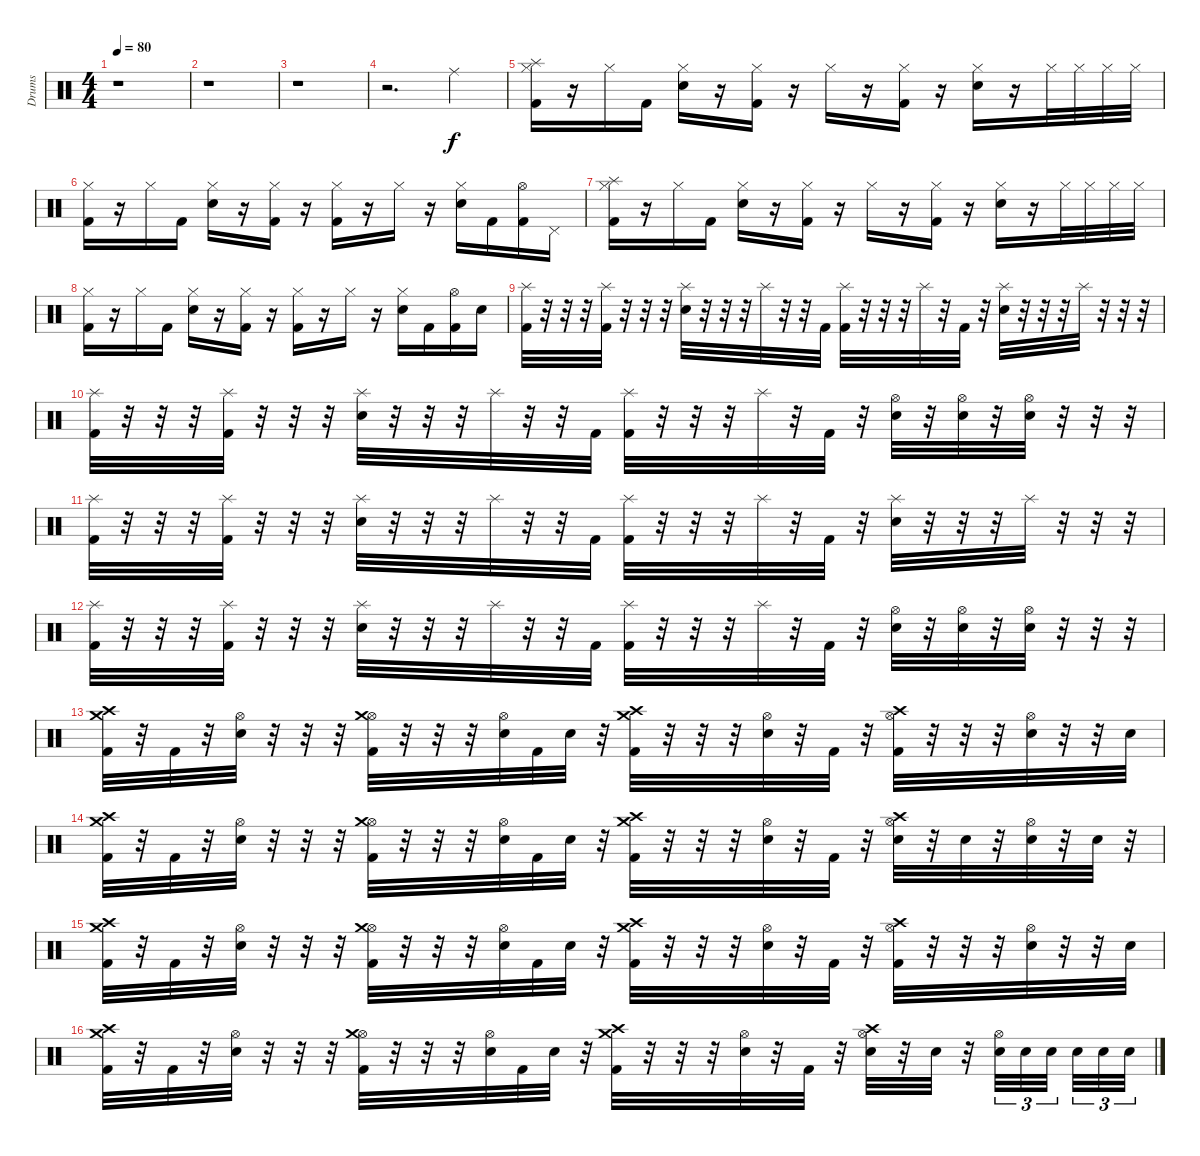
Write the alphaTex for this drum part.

\track ("Drums" "Drums") {instrument percussion}
\staff {score}
\articulation defaults
\ts (4 4)
\tempo 80
\clef neutral
\ks c
r.1{dy f} |
r.1 |
r.1 |
r.2{d} "Ride (middle)".4 |
("Splash (hit)" "Hi-Hat (closed)" "Kick (hit) 2").16{volume 10} r.16 "Hi-Hat (closed)".16 "Kick (hit) 2".16 ("Hi-Hat (closed)" "Electric Snare (hit)").16 r.16 ("Hi-Hat (closed)" "Kick (hit) 2").16 r.16 "Hi-Hat (closed)".16 r.16 ("Hi-Hat (closed)" "Kick (hit) 2").16 r.16 ("Hi-Hat (closed)" "Electric Snare (hit)").16 r.16 "Hi-Hat (closed)".32 "Hi-Hat (closed)".32 "Hi-Hat (closed)".32 "Hi-Hat (closed)".32 |
("Hi-Hat (closed)" "Kick (hit) 2").16{volume 10} r.16 "Hi-Hat (closed)".16 "Kick (hit) 2".16 ("Hi-Hat (closed)" "Electric Snare (hit)").16 r.16 ("Hi-Hat (closed)" "Kick (hit) 2").16 r.16 ("Hi-Hat (closed)" "Kick (hit) 2").16 r.16 "Hi-Hat (closed)".16 r.16 ("Hi-Hat (closed)" "Electric Snare (hit)").16 "Kick (hit) 2".16 ("Hi-Hat (open)" "Kick (hit) 2").16 "Pedal Hi-Hat (hit)".16 |
("Splash (hit)" "Hi-Hat (closed)" "Kick (hit) 2").16{volume 10} r.16 "Hi-Hat (closed)".16 "Kick (hit) 2".16 ("Hi-Hat (closed)" "Electric Snare (hit)").16 r.16 ("Hi-Hat (closed)" "Kick (hit) 2").16 r.16 "Hi-Hat (closed)".16 r.16 ("Hi-Hat (closed)" "Kick (hit) 2").16 r.16 ("Hi-Hat (closed)" "Electric Snare (hit)").16 r.16 "Hi-Hat (closed)".32 "Hi-Hat (closed)".32 "Hi-Hat (closed)".32 "Hi-Hat (closed)".32 |
("Hi-Hat (closed)" "Kick (hit) 2").16{volume 10} r.16 "Hi-Hat (closed)".16 "Kick (hit) 2".16 ("Hi-Hat (closed)" "Electric Snare (hit)").16 r.16 ("Hi-Hat (closed)" "Kick (hit) 2").16 r.16 ("Hi-Hat (closed)" "Kick (hit) 2").16 r.16 "Hi-Hat (closed)".16 r.16 ("Hi-Hat (closed)" "Electric Snare (hit)").16 "Kick (hit) 2".16 ("Hi-Hat (open)" "Kick (hit) 2").16 "Electric Snare (hit)".16 |
("Splash (hit)" "Kick (hit) 2").32{volume 15} r.32 r.32 r.32 ("Splash (hit)" "Kick (hit) 2").32 r.32 r.32 r.32 ("Splash (hit)" "Electric Snare (hit)").32 r.32 r.32 r.32 "Splash (hit)".32 r.32 r.32 "Kick (hit) 2".32 ("Splash (hit)" "Kick (hit) 2").32 r.32 r.32 r.32 "Splash (hit)".32 r.32 "Kick (hit) 2".32 r.32 ("Splash (hit)" "Electric Snare (hit)").32 r.32 r.32 r.32 "Splash (hit)".32 r.32 r.32 r.32 |
("Splash (hit)" "Kick (hit) 2").32{volume 15} r.32 r.32 r.32 ("Splash (hit)" "Kick (hit) 2").32 r.32 r.32 r.32 ("Splash (hit)" "Electric Snare (hit)").32 r.32 r.32 r.32 "Splash (hit)".32 r.32 r.32 "Kick (hit) 2".32 ("Splash (hit)" "Kick (hit) 2").32 r.32 r.32 r.32 "Splash (hit)".32 r.32 "Kick (hit) 2".32 r.32 ("Hi-Hat (open)" "Electric Snare (hit)").32 r.32 ("Hi-Hat (open)" "Electric Snare (hit)").32 r.32 ("Hi-Hat (open)" "Electric Snare (hit)").32 r.32 r.32 r.32 |
("Splash (hit)" "Kick (hit) 2").32{volume 15} r.32 r.32 r.32 ("Splash (hit)" "Kick (hit) 2").32 r.32 r.32 r.32 ("Splash (hit)" "Electric Snare (hit)").32 r.32 r.32 r.32 "Splash (hit)".32 r.32 r.32 "Kick (hit) 2".32 ("Splash (hit)" "Kick (hit) 2").32 r.32 r.32 r.32 "Splash (hit)".32 r.32 "Kick (hit) 2".32 r.32 ("Splash (hit)" "Electric Snare (hit)").32 r.32 r.32 r.32 "Splash (hit)".32 r.32 r.32 r.32 |
("Splash (hit)" "Kick (hit) 2").32{volume 15} r.32 r.32 r.32 ("Splash (hit)" "Kick (hit) 2").32 r.32 r.32 r.32 ("Splash (hit)" "Electric Snare (hit)").32 r.32 r.32 r.32 "Splash (hit)".32 r.32 r.32 "Kick (hit) 2".32 ("Splash (hit)" "Kick (hit) 2").32 r.32 r.32 r.32 "Splash (hit)".32 r.32 "Kick (hit) 2".32 r.32 ("Hi-Hat (open)" "Electric Snare (hit)").32 r.32 ("Hi-Hat (open)" "Electric Snare (hit)").32 r.32 ("Hi-Hat (open)" "Electric Snare (hit)").32 r.32 r.32 r.32 |
("Crash high (hit)" "Crash medium (hit)" "Kick (hit) 2").32{volume 15} r.32 "Kick (hit) 2".32 r.32 ("Hi-Hat (open)" "Electric Snare (hit)").32 r.32 r.32 r.32 ("Hi-Hat (open)" "Crash medium (hit)" "Kick (hit) 2").32 r.32 r.32 r.32 ("Hi-Hat (open)" "Electric Snare (hit)").32 "Kick (hit) 2".32 "Electric Snare (hit)".32 r.32 ("Crash high (hit)" "Crash medium (hit)" "Kick (hit) 2").32 r.32 r.32 r.32 ("Hi-Hat (open)" "Electric Snare (hit)").32 r.32 "Kick (hit) 2".32 r.32 ("Crash high (hit)" "Hi-Hat (open)" "Kick (hit) 2").32 r.32 r.32 r.32 ("Hi-Hat (open)" "Electric Snare (hit)").32 r.32 r.32 "Electric Snare (hit)".32 |
("Crash high (hit)" "Crash medium (hit)" "Kick (hit) 2").32{volume 15} r.32 "Kick (hit) 2".32 r.32 ("Hi-Hat (open)" "Electric Snare (hit)").32 r.32 r.32 r.32 ("Hi-Hat (open)" "Crash medium (hit)" "Kick (hit) 2").32 r.32 r.32 r.32 ("Hi-Hat (open)" "Electric Snare (hit)").32 "Kick (hit) 2".32 "Electric Snare (hit)".32 r.32 ("Crash high (hit)" "Crash medium (hit)" "Kick (hit) 2").32 r.32 r.32 r.32 ("Hi-Hat (open)" "Electric Snare (hit)").32 r.32 "Kick (hit) 2".32 r.32 ("Crash high (hit)" "Hi-Hat (open)" "Electric Snare (hit)").32 r.32 "Electric Snare (hit)".32 r.32 ("Hi-Hat (open)" "Electric Snare (hit)").32 r.32 "Electric Snare (hit)".32 r.32 |
("Crash high (hit)" "Crash medium (hit)" "Kick (hit) 2").32{volume 15} r.32 "Kick (hit) 2".32 r.32 ("Hi-Hat (open)" "Electric Snare (hit)").32 r.32 r.32 r.32 ("Hi-Hat (open)" "Crash medium (hit)" "Kick (hit) 2").32 r.32 r.32 r.32 ("Hi-Hat (open)" "Electric Snare (hit)").32 "Kick (hit) 2".32 "Electric Snare (hit)".32 r.32 ("Crash high (hit)" "Crash medium (hit)" "Kick (hit) 2").32 r.32 r.32 r.32 ("Hi-Hat (open)" "Electric Snare (hit)").32 r.32 "Kick (hit) 2".32 r.32 ("Crash high (hit)" "Hi-Hat (open)" "Kick (hit) 2").32 r.32 r.32 r.32 ("Hi-Hat (open)" "Electric Snare (hit)").32 r.32 r.32 "Electric Snare (hit)".32 |
("Crash high (hit)" "Crash medium (hit)" "Kick (hit) 2").32{volume 15} r.32 "Kick (hit) 2".32 r.32 ("Hi-Hat (open)" "Electric Snare (hit)").32 r.32 r.32 r.32 ("Hi-Hat (open)" "Crash medium (hit)" "Kick (hit) 2").32 r.32 r.32 r.32 ("Hi-Hat (open)" "Electric Snare (hit)").32 "Kick (hit) 2".32 "Electric Snare (hit)".32 r.32 ("Crash high (hit)" "Crash medium (hit)" "Kick (hit) 2").32 r.32 r.32 r.32 ("Hi-Hat (open)" "Electric Snare (hit)").32 r.32 "Kick (hit) 2".32 r.32 ("Crash high (hit)" "Hi-Hat (open)" "Electric Snare (hit)").32 r.32 "Electric Snare (hit)".32 r.32 ("Hi-Hat (open)" "Electric Snare (hit)").32{tu (3 2)} "Electric Snare (hit)".32{tu (3 2)} "Electric Snare (hit)".32{tu (3 2)} "Electric Snare (hit)".32{tu (3 2)} "Electric Snare (hit)".32{tu (3 2)} "Electric Snare (hit)".32{tu (3 2)}
